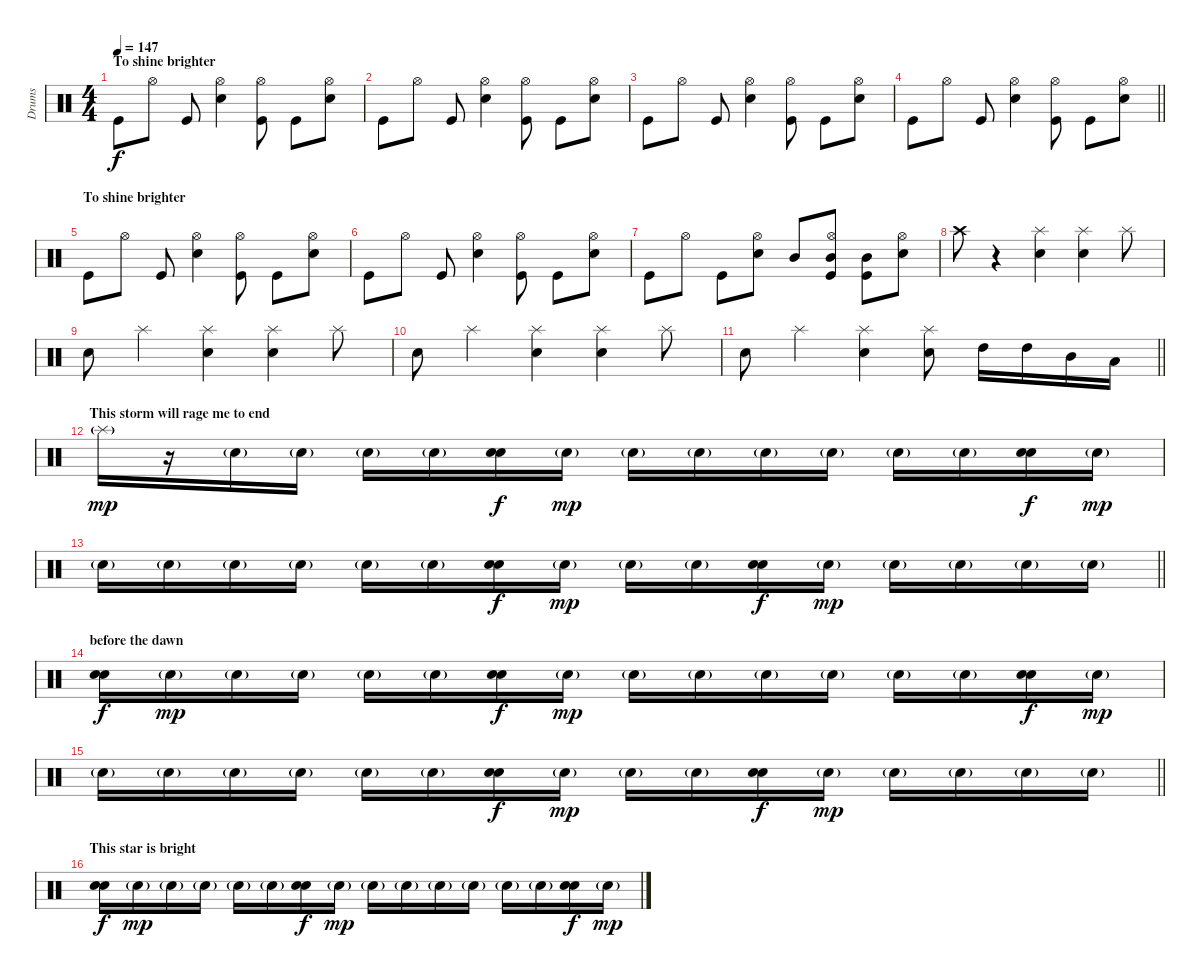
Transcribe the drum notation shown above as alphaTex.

\track ("Drums" "Drums") {instrument percussion}
\staff {score}
\articulation defaults
\ts (4 4)
\section ("" "To shine brighter ")
\tempo 147
\clef neutral
\ks c "Kick (hit)".8{dy f} "Hi-Hat (open)".8 "Kick (hit)".8
("Hi-Hat (open)" "Snare (hit) 2").4 ("Hi-Hat (open)" "Kick (hit)").8 "Kick (hit)".8 ("Hi-Hat (open)" "Snare (hit) 2").8 |
"Kick (hit)".8 "Hi-Hat (open)".8 "Kick (hit)".8 ("Hi-Hat (open)" "Snare (hit) 2").4 ("Hi-Hat (open)" "Kick (hit)").8 "Kick (hit)".8 ("Hi-Hat (open)" "Snare (hit) 2").8 |
"Kick (hit)".8 "Hi-Hat (open)".8 "Kick (hit)".8 ("Hi-Hat (open)" "Snare (hit) 2").4 ("Hi-Hat (open)" "Kick (hit)").8 "Kick (hit)".8 ("Hi-Hat (open)" "Snare (hit) 2").8 |
\barLineRight lightlight "Kick (hit)".8 "Hi-Hat (open)".8 "Kick (hit)".8
("Hi-Hat (open)" "Snare (hit) 2").4 ("Hi-Hat (open)" "Kick (hit)").8 "Kick (hit)".8 ("Hi-Hat (open)" "Snare (hit) 2").8 |
\section ("" "To shine brighter ")
"Kick (hit)".8 "Hi-Hat (open)".8 "Kick (hit)".8 ("Hi-Hat (open)" "Snare (hit) 2").4 ("Hi-Hat (open)" "Kick (hit)").8 "Kick (hit)".8 ("Hi-Hat (open)" "Snare (hit) 2").8 |
"Kick (hit)".8 "Hi-Hat (open)".8 "Kick (hit)".8 ("Hi-Hat (open)" "Snare (hit) 2").4 ("Hi-Hat (open)" "Kick (hit)").8 "Kick (hit)".8 ("Hi-Hat (open)" "Snare (hit) 2").8 |
"Kick (hit)".8 "Hi-Hat (open)".8 "Kick (hit)".8 ("Hi-Hat (open)" "Snare (hit) 2").8 "Mid Tom (hit)".8 ("Hi-Hat (open)" "Mid Tom (hit)" "Kick (hit)").8 ("Mid Tom (hit)" "Kick (hit)").8 ("Hi-Hat (open)" "Snare (hit) 2").8 |
"Crash high (hit)".8 r.4 ("Splash (hit)" "Snare (hit) 2").4 ("Splash (hit)" "Snare (hit) 2").4 "Splash (hit)".8 |
"Snare (hit) 2".8 "Splash (hit)".4 ("Splash (hit)" "Snare (hit) 2").4 ("Splash (hit)" "Snare (hit) 2").4 "Splash (hit)".8 |
"Snare (hit) 2".8 "Splash (hit)".4 ("Splash (hit)" "Snare (hit) 2").4 ("Splash (hit)" "Snare (hit) 2").4 "Splash (hit)".8 |
\barLineRight lightlight "Snare (hit) 2".8 "Splash (hit)".4
("Splash (hit)" "Snare (hit) 2").4 ("Splash (hit)" "Snare (hit) 2").8 "High Tom (hit)".16 "High Tom (hit)".16 "Mid Tom (hit)".16 "Low Tom (hit)".16 |
\section ("" "This storm will rage me to end ")
"Splash (hit)"{g}.16{dy mp} r.16 "Snare (hit) 2"{g}.16 "Snare (hit) 2"{g}.16 "Snare (hit) 2"{g}.16 "Snare (hit) 2"{g}.16 ("Electric Snare (hit)" "Snare (hit) 2").16{dy f} "Snare (hit) 2"{g}.16{dy mp} "Snare (hit) 2"{g}.16 "Snare (hit) 2"{g}.16 "Snare (hit) 2"{g}.16 "Snare (hit) 2"{g}.16 "Snare (hit) 2"{g}.16 "Snare (hit) 2"{g}.16 ("Electric Snare (hit)" "Snare (hit) 2").16{dy f} "Snare (hit) 2"{g}.16{dy mp} |
\barLineRight lightlight "Snare (hit) 2"{g}.16 "Snare (hit) 2"{g}.16 "Snare (hit) 2"{g}.16 "Snare (hit) 2"{g}.16 "Snare (hit) 2"{g}.16 "Snare (hit) 2"{g}.16
("Electric Snare (hit)" "Snare (hit) 2").16{dy f} "Snare (hit) 2"{g}.16{dy mp} "Snare (hit) 2"{g}.16 "Snare (hit) 2"{g}.16 ("Electric Snare (hit)" "Snare (hit) 2").16{dy f} "Snare (hit) 2"{g}.16{dy mp} "Snare (hit) 2"{g}.16 "Snare (hit) 2"{g}.16 "Snare (hit) 2"{g}.16 "Snare (hit) 2"{g}.16 |
\section ("" "before the dawn ")
("Electric Snare (hit)" "Snare (hit) 2").16{dy f} "Snare (hit) 2"{g}.16{dy mp} "Snare (hit) 2"{g}.16 "Snare (hit) 2"{g}.16 "Snare (hit) 2"{g}.16 "Snare (hit) 2"{g}.16 ("Electric Snare (hit)" "Snare (hit) 2").16{dy f} "Snare (hit) 2"{g}.16{dy mp} "Snare (hit) 2"{g}.16 "Snare (hit) 2"{g}.16 "Snare (hit) 2"{g}.16 "Snare (hit) 2"{g}.16 "Snare (hit) 2"{g}.16 "Snare (hit) 2"{g}.16 ("Electric Snare (hit)" "Snare (hit) 2").16{dy f} "Snare (hit) 2"{g}.16{dy mp} |
\barLineRight lightlight "Snare (hit) 2"{g}.16 "Snare (hit) 2"{g}.16 "Snare (hit) 2"{g}.16 "Snare (hit) 2"{g}.16 "Snare (hit) 2"{g}.16 "Snare (hit) 2"{g}.16
("Electric Snare (hit)" "Snare (hit) 2").16{dy f} "Snare (hit) 2"{g}.16{dy mp} "Snare (hit) 2"{g}.16 "Snare (hit) 2"{g}.16 ("Electric Snare (hit)" "Snare (hit) 2").16{dy f} "Snare (hit) 2"{g}.16{dy mp} "Snare (hit) 2"{g}.16 "Snare (hit) 2"{g}.16 "Snare (hit) 2"{g}.16 "Snare (hit) 2"{g}.16 |
\section ("" "This star is bright ")
("Electric Snare (hit)" "Snare (hit) 2").16{dy f} "Snare (hit) 2"{g}.16{dy mp} "Snare (hit) 2"{g}.16 "Snare (hit) 2"{g}.16 "Snare (hit) 2"{g}.16 "Snare (hit) 2"{g}.16 ("Electric Snare (hit)" "Snare (hit) 2").16{dy f} "Snare (hit) 2"{g}.16{dy mp} "Snare (hit) 2"{g}.16 "Snare (hit) 2"{g}.16 "Snare (hit) 2"{g}.16 "Snare (hit) 2"{g}.16 "Snare (hit) 2"{g}.16 "Snare (hit) 2"{g}.16 ("Electric Snare (hit)" "Snare (hit) 2").16{dy f} "Snare (hit) 2"{g}.16{dy mp}
